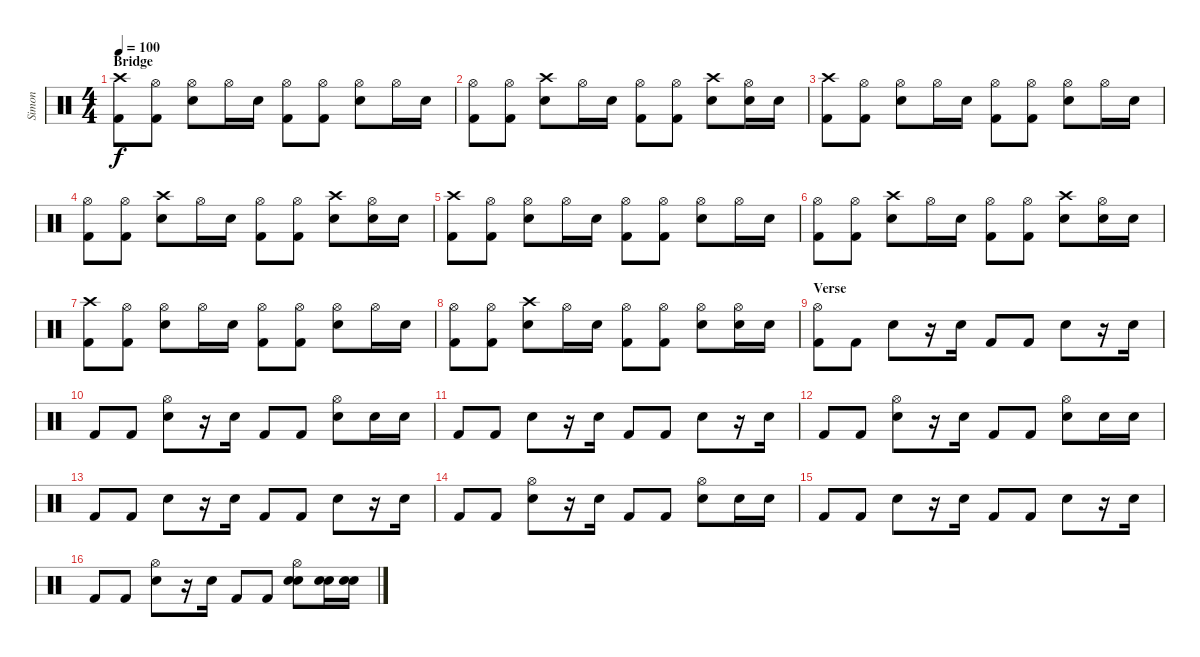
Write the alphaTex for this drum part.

\track ("Simon" "Simon") {instrument percussion}
\staff {score}
\articulation defaults
\ts (4 4)
\section ("" "Bridge")
\tempo 100
\clef neutral
\ks c
("Crash high (hit)" "Kick (hit) 2").8{dy f} ("Hi-Hat (open)" "Kick (hit) 2").8 ("Hi-Hat (open)" "Electric Snare (hit)").8 "Hi-Hat (open)".16 "Electric Snare (hit)".16 ("Hi-Hat (open)" "Kick (hit) 2").8 ("Hi-Hat (open)" "Kick (hit) 2").8 ("Hi-Hat (open)" "Electric Snare (hit)").8 "Hi-Hat (open)".16 "Electric Snare (hit)".16 |
("Hi-Hat (open)" "Kick (hit) 2").8 ("Hi-Hat (open)" "Kick (hit) 2").8 ("Crash high (hit)" "Electric Snare (hit)").8 "Hi-Hat (open)".16 "Electric Snare (hit)".16 ("Hi-Hat (open)" "Kick (hit) 2").8 ("Hi-Hat (open)" "Kick (hit) 2").8 ("Crash high (hit)" "Electric Snare (hit)").8 ("Hi-Hat (open)" "Electric Snare (hit)").16 "Electric Snare (hit)".16 |
("Crash high (hit)" "Kick (hit) 2").8 ("Hi-Hat (open)" "Kick (hit) 2").8 ("Hi-Hat (open)" "Electric Snare (hit)").8 "Hi-Hat (open)".16 "Electric Snare (hit)".16 ("Hi-Hat (open)" "Kick (hit) 2").8 ("Hi-Hat (open)" "Kick (hit) 2").8 ("Hi-Hat (open)" "Electric Snare (hit)").8 "Hi-Hat (open)".16 "Electric Snare (hit)".16 |
("Hi-Hat (open)" "Kick (hit) 2").8 ("Hi-Hat (open)" "Kick (hit) 2").8 ("Crash high (hit)" "Electric Snare (hit)").8 "Hi-Hat (open)".16 "Electric Snare (hit)".16 ("Hi-Hat (open)" "Kick (hit) 2").8 ("Hi-Hat (open)" "Kick (hit) 2").8 ("Crash high (hit)" "Electric Snare (hit)").8 ("Hi-Hat (open)" "Electric Snare (hit)").16 "Electric Snare (hit)".16 |
("Crash high (hit)" "Kick (hit) 2").8 ("Hi-Hat (open)" "Kick (hit) 2").8 ("Hi-Hat (open)" "Electric Snare (hit)").8 "Hi-Hat (open)".16 "Electric Snare (hit)".16 ("Hi-Hat (open)" "Kick (hit) 2").8 ("Hi-Hat (open)" "Kick (hit) 2").8 ("Hi-Hat (open)" "Electric Snare (hit)").8 "Hi-Hat (open)".16 "Electric Snare (hit)".16 |
("Hi-Hat (open)" "Kick (hit) 2").8 ("Hi-Hat (open)" "Kick (hit) 2").8 ("Crash high (hit)" "Electric Snare (hit)").8 "Hi-Hat (open)".16 "Electric Snare (hit)".16 ("Hi-Hat (open)" "Kick (hit) 2").8 ("Hi-Hat (open)" "Kick (hit) 2").8 ("Crash high (hit)" "Electric Snare (hit)").8 ("Hi-Hat (open)" "Electric Snare (hit)").16 "Electric Snare (hit)".16 |
("Crash high (hit)" "Kick (hit) 2").8 ("Hi-Hat (open)" "Kick (hit) 2").8 ("Hi-Hat (open)" "Electric Snare (hit)").8 "Hi-Hat (open)".16 "Electric Snare (hit)".16 ("Hi-Hat (open)" "Kick (hit) 2").8 ("Hi-Hat (open)" "Kick (hit) 2").8 ("Hi-Hat (open)" "Electric Snare (hit)").8 "Hi-Hat (open)".16 "Electric Snare (hit)".16 |
("Hi-Hat (open)" "Kick (hit) 2").8 ("Hi-Hat (open)" "Kick (hit) 2").8 ("Crash high (hit)" "Electric Snare (hit)").8 "Hi-Hat (open)".16 "Electric Snare (hit)".16 ("Hi-Hat (open)" "Kick (hit) 2").8 ("Hi-Hat (open)" "Kick (hit) 2").8 ("Hi-Hat (open)" "Electric Snare (hit)").8 ("Hi-Hat (open)" "Electric Snare (hit)").16 "Electric Snare (hit)".16 |
\section ("" "Verse")
("Hi-Hat (open)" "Kick (hit) 2").8 "Kick (hit) 2".8 "Electric Snare (hit)".8 r.16 "Electric Snare (hit)".16 "Kick (hit) 2".8 "Kick (hit) 2".8 "Electric Snare (hit)".8 r.16 "Electric Snare (hit)".16 |
"Kick (hit) 2".8 "Kick (hit) 2".8 ("Hi-Hat (open)" "Electric Snare (hit)").8 r.16 "Electric Snare (hit)".16 "Kick (hit) 2".8 "Kick (hit) 2".8 ("Hi-Hat (open)" "Electric Snare (hit)").8 "Electric Snare (hit)".16 "Electric Snare (hit)".16 |
"Kick (hit) 2".8 "Kick (hit) 2".8 "Electric Snare (hit)".8 r.16 "Electric Snare (hit)".16 "Kick (hit) 2".8 "Kick (hit) 2".8 "Electric Snare (hit)".8 r.16 "Electric Snare (hit)".16 |
"Kick (hit) 2".8 "Kick (hit) 2".8 ("Hi-Hat (open)" "Electric Snare (hit)").8 r.16 "Electric Snare (hit)".16 "Kick (hit) 2".8 "Kick (hit) 2".8 ("Hi-Hat (open)" "Electric Snare (hit)").8 "Electric Snare (hit)".16 "Electric Snare (hit)".16 |
"Kick (hit) 2".8 "Kick (hit) 2".8 "Electric Snare (hit)".8 r.16 "Electric Snare (hit)".16 "Kick (hit) 2".8 "Kick (hit) 2".8 "Electric Snare (hit)".8 r.16 "Electric Snare (hit)".16 |
"Kick (hit) 2".8 "Kick (hit) 2".8 ("Hi-Hat (open)" "Electric Snare (hit)").8 r.16 "Electric Snare (hit)".16 "Kick (hit) 2".8 "Kick (hit) 2".8 ("Hi-Hat (open)" "Electric Snare (hit)").8 "Electric Snare (hit)".16 "Electric Snare (hit)".16 |
"Kick (hit) 2".8 "Kick (hit) 2".8 "Electric Snare (hit)".8 r.16 "Electric Snare (hit)".16 "Kick (hit) 2".8 "Kick (hit) 2".8 "Electric Snare (hit)".8 r.16 "Electric Snare (hit)".16 |
"Kick (hit) 2".8 "Kick (hit) 2".8 ("Hi-Hat (open)" "Electric Snare (hit)").8 r.16 "Electric Snare (hit)".16 "Kick (hit) 2".8 "Kick (hit) 2".8 ("Hi-Hat (open)" "Electric Snare (hit)" "Electric Snare (hit)").8 ("Electric Snare (hit)" "Electric Snare (hit)").16 ("Electric Snare (hit)" "Electric Snare (hit)").16
